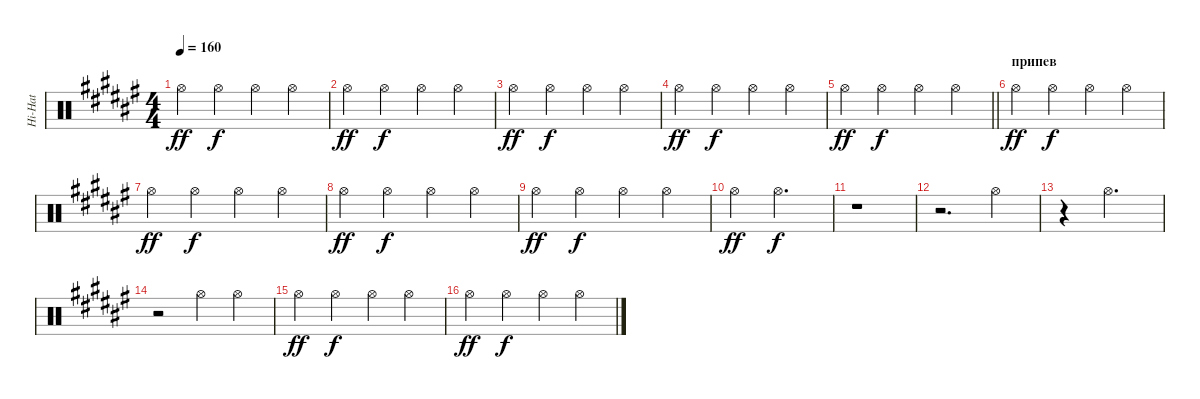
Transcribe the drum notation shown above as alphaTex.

\track ("Hi-Hat" "Hi-Hat") {instrument percussion}
\staff {score}
\articulation defaults
\ts (4 4)
\tempo 160
\clef neutral
\ks d#minor "Hi-Hat (open)".4{dy ff} "Hi-Hat (open)".4{dy f} "Hi-Hat (open)".4 "Hi-Hat (open)".4
|
"Hi-Hat (open)".4{dy ff} "Hi-Hat (open)".4{dy f} "Hi-Hat (open)".4 "Hi-Hat (open)".4 |
"Hi-Hat (open)".4{dy ff} "Hi-Hat (open)".4{dy f} "Hi-Hat (open)".4 "Hi-Hat (open)".4 |
"Hi-Hat (open)".4{dy ff} "Hi-Hat (open)".4{dy f} "Hi-Hat (open)".4 "Hi-Hat (open)".4 |
\barLineRight lightlight "Hi-Hat (open)".4{dy ff} "Hi-Hat (open)".4{dy f} "Hi-Hat (open)".4 "Hi-Hat (open)".4
|
\section ("" "припев")
"Hi-Hat (open)".4{dy ff} "Hi-Hat (open)".4{dy f} "Hi-Hat (open)".4 "Hi-Hat (open)".4 |
"Hi-Hat (open)".4{dy ff} "Hi-Hat (open)".4{dy f} "Hi-Hat (open)".4 "Hi-Hat (open)".4 |
"Hi-Hat (open)".4{dy ff} "Hi-Hat (open)".4{dy f} "Hi-Hat (open)".4 "Hi-Hat (open)".4 |
"Hi-Hat (open)".4{dy ff} "Hi-Hat (open)".4{dy f} "Hi-Hat (open)".4 "Hi-Hat (open)".4 |
"Hi-Hat (open)".4{dy ff} "Hi-Hat (open)".2{d dy f} |
r.1 |
r.2{d} "Hi-Hat (open)".4 |
r.4 "Hi-Hat (open)".2{d} |
r.2 "Hi-Hat (open)".4 "Hi-Hat (open)".4 |
"Hi-Hat (open)".4{dy ff} "Hi-Hat (open)".4{dy f} "Hi-Hat (open)".4 "Hi-Hat (open)".4 |
"Hi-Hat (open)".4{dy ff} "Hi-Hat (open)".4{dy f} "Hi-Hat (open)".4 "Hi-Hat (open)".4
